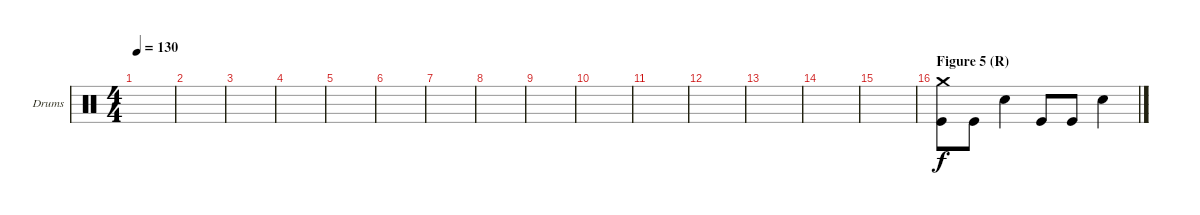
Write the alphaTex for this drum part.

\defaultSystemsLayout 4
\bracketExtendMode groupsimilarinstruments
\firstSystemTrackNameOrientation horizontal
\otherSystemsTrackNameOrientation horizontal
\track ("Drums" "Drums") {instrument percussion}
\staff {score}
\articulation defaults
\ts (4 4)
\tempo 130
\clef neutral
\ks aminor
|
|
|
|
|
|
|
|
|
|
|
|
|
|
|
\section ("" "Figure 5 (R)")
("Kick (hit)" "Crash medium (hit)").8 "Kick (hit)".8 "Snare (hit) 2".4 "Kick (hit)".8 "Kick (hit)".8 "Snare (hit) 2".4
